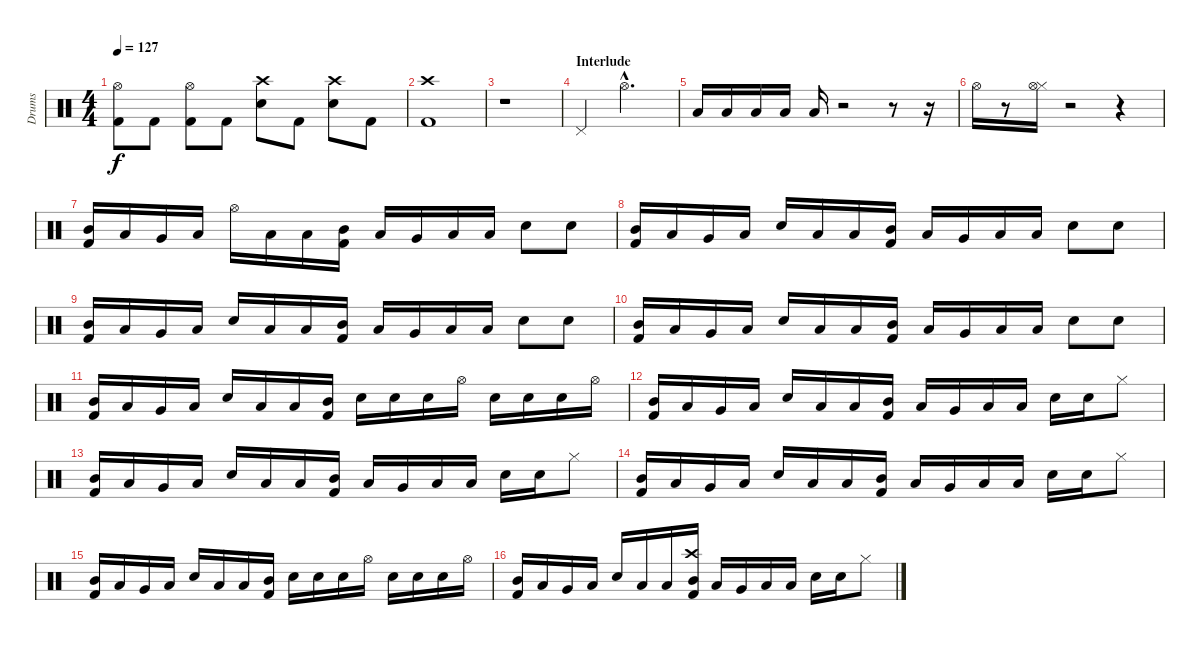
\track ("Drums" "Drums") {instrument percussion}
\staff {score}
\articulation defaults
\ts (4 4)
\tempo 127
\clef neutral
\ks c
("Hi-Hat (open)" "Kick (hit) 2").8{dy f} "Kick (hit) 2".8 ("Hi-Hat (open)" "Kick (hit) 2").8 "Kick (hit) 2".8 ("Crash high (hit)" "Snare (hit) 2").8 "Kick (hit) 2".8 ("Crash high (hit)" "Snare (hit) 2").8 "Kick (hit) 2".8 |
("Crash high (hit)" "Kick (hit) 2").1 |
r.1 |
\section ("" "Interlude")
"Pedal Hi-Hat (hit)".4 "Hi-Hat (open)"{hac}.2{d} |
"Low Floor Tom (hit)".16 "Low Floor Tom (hit)".16 "Low Floor Tom (hit)".16 "Low Floor Tom (hit)".16 "Low Floor Tom (hit)".16 r.2 r.8 r.16 |
"Hi-Hat (open)".16 r.8 ("Hi-Hat (closed)" "Hi-Hat (open)").16 r.2 r.4 |
("Mid Tom (hit)" "Kick (hit) 2").16 "Low Tom (hit)".16 "Very Low Tom (hit)".16 "Low Floor Tom (hit)".16 "Hi-Hat (open)".16 "Low Floor Tom (hit)".16 "Low Floor Tom (hit)".16 ("Mid Tom (hit)" "Kick (hit) 2").16 "Low Tom (hit)".16 "Very Low Tom (hit)".16 "Low Floor Tom (hit)".16 "Low Floor Tom (hit)".16 "Snare (hit) 2".8 "Snare (hit) 2".8 |
("Mid Tom (hit)" "Kick (hit) 2").16 "Low Tom (hit)".16 "Very Low Tom (hit)".16 "Low Floor Tom (hit)".16 "Snare (hit) 2".16 "Low Floor Tom (hit)".16 "Low Floor Tom (hit)".16 ("Mid Tom (hit)" "Kick (hit) 2").16 "Low Tom (hit)".16 "Very Low Tom (hit)".16 "Low Floor Tom (hit)".16 "Low Floor Tom (hit)".16 "Snare (hit) 2".8 "Snare (hit) 2".8 |
("Mid Tom (hit)" "Kick (hit) 2").16 "Low Tom (hit)".16 "Very Low Tom (hit)".16 "Low Floor Tom (hit)".16 "Snare (hit) 2".16 "Low Floor Tom (hit)".16 "Low Floor Tom (hit)".16 ("Mid Tom (hit)" "Kick (hit) 2").16 "Low Tom (hit)".16 "Very Low Tom (hit)".16 "Low Floor Tom (hit)".16 "Low Floor Tom (hit)".16 "Snare (hit) 2".8 "Snare (hit) 2".8 |
("Mid Tom (hit)" "Kick (hit) 2").16 "Low Tom (hit)".16 "Very Low Tom (hit)".16 "Low Floor Tom (hit)".16 "Snare (hit) 2".16 "Low Floor Tom (hit)".16 "Low Floor Tom (hit)".16 ("Mid Tom (hit)" "Kick (hit) 2").16 "Low Tom (hit)".16 "Very Low Tom (hit)".16 "Low Floor Tom (hit)".16 "Low Floor Tom (hit)".16 "Snare (hit) 2".8 "Snare (hit) 2".8 |
("Mid Tom (hit)" "Kick (hit) 2").16 "Low Tom (hit)".16 "Very Low Tom (hit)".16 "Low Floor Tom (hit)".16 "Snare (hit) 2".16 "Low Floor Tom (hit)".16 "Low Floor Tom (hit)".16 ("Mid Tom (hit)" "Kick (hit) 2").16 "Snare (hit) 2".16 "Snare (hit) 2".16 "Snare (hit) 2".16 "Hi-Hat (open)".16 "Snare (hit) 2".16 "Snare (hit) 2".16 "Snare (hit) 2".16 "Hi-Hat (open)".16 |
("Mid Tom (hit)" "Kick (hit) 2").16 "Low Tom (hit)".16 "Very Low Tom (hit)".16 "Low Floor Tom (hit)".16 "Snare (hit) 2".16 "Low Floor Tom (hit)".16 "Low Floor Tom (hit)".16 ("Mid Tom (hit)" "Kick (hit) 2").16 "Low Tom (hit)".16 "Very Low Tom (hit)".16 "Low Floor Tom (hit)".16 "Low Floor Tom (hit)".16 "Snare (hit) 2".16 "Snare (hit) 2".16 "Hi-Hat (closed)".8 |
("Mid Tom (hit)" "Kick (hit) 2").16 "Low Tom (hit)".16 "Very Low Tom (hit)".16 "Low Floor Tom (hit)".16 "Snare (hit) 2".16 "Low Floor Tom (hit)".16 "Low Floor Tom (hit)".16 ("Mid Tom (hit)" "Kick (hit) 2").16 "Low Tom (hit)".16 "Very Low Tom (hit)".16 "Low Floor Tom (hit)".16 "Low Floor Tom (hit)".16 "Snare (hit) 2".16 "Snare (hit) 2".16 "Hi-Hat (closed)".8 |
("Mid Tom (hit)" "Kick (hit) 2").16 "Low Tom (hit)".16 "Very Low Tom (hit)".16 "Low Floor Tom (hit)".16 "Snare (hit) 2".16 "Low Floor Tom (hit)".16 "Low Floor Tom (hit)".16 ("Mid Tom (hit)" "Kick (hit) 2").16 "Low Tom (hit)".16 "Very Low Tom (hit)".16 "Low Floor Tom (hit)".16 "Low Floor Tom (hit)".16 "Snare (hit) 2".16 "Snare (hit) 2".16 "Hi-Hat (closed)".8 |
("Mid Tom (hit)" "Kick (hit) 2").16 "Low Tom (hit)".16 "Very Low Tom (hit)".16 "Low Floor Tom (hit)".16 "Snare (hit) 2".16 "Low Floor Tom (hit)".16 "Low Floor Tom (hit)".16 ("Mid Tom (hit)" "Kick (hit) 2").16 "Snare (hit) 2".16 "Snare (hit) 2".16 "Snare (hit) 2".16 "Hi-Hat (open)".16 "Snare (hit) 2".16 "Snare (hit) 2".16 "Snare (hit) 2".16 "Hi-Hat (open)".16 |
("Mid Tom (hit)" "Kick (hit) 2").16 "Low Tom (hit)".16 "Very Low Tom (hit)".16 "Low Floor Tom (hit)".16 "Snare (hit) 2".16 "Low Floor Tom (hit)".16 "Low Floor Tom (hit)".16 ("Crash high (hit)" "Mid Tom (hit)" "Kick (hit) 2").16 "Low Tom (hit)".16 "Very Low Tom (hit)".16 "Low Floor Tom (hit)".16 "Low Floor Tom (hit)".16 "Snare (hit) 2".16 "Snare (hit) 2".16 "Hi-Hat (closed)".8
